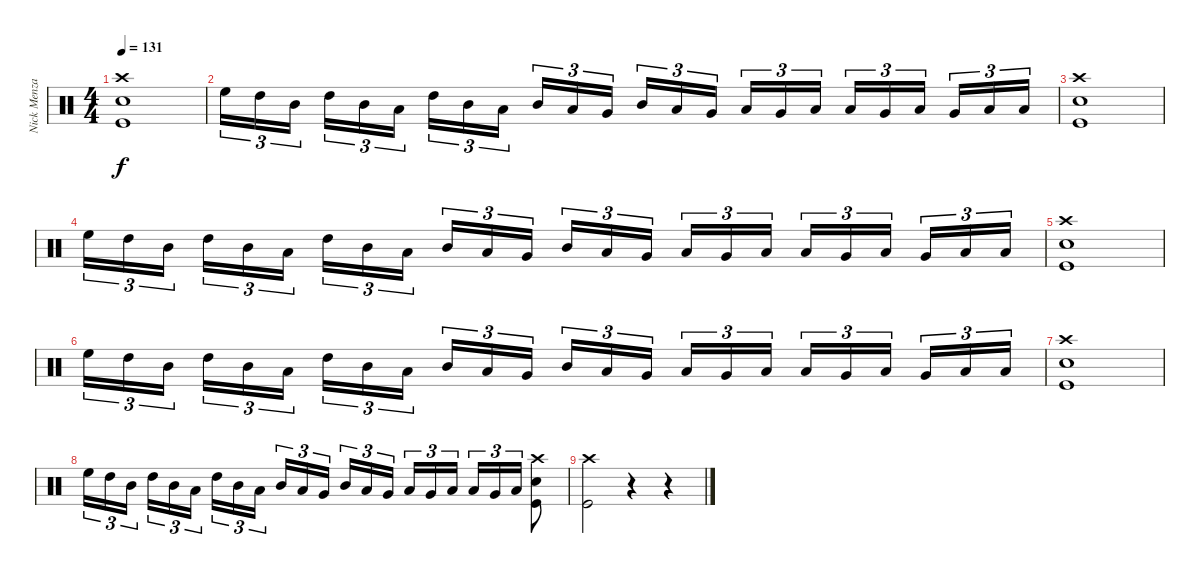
\track ("Nick Menza" "Nick Menza") {instrument percussion}
\staff {score}
\articulation defaults
\ts (4 4)
\tempo 131
\clef neutral
\ks c
("Crash high (hit)" "Snare (hit) 2" "Kick (hit)").1{dy f} |
"High Floor Tom (hit)".16{tu (3 2)} "High Tom (hit)".16{tu (3 2)} "Mid Tom (hit)".16{tu (3 2)} "High Tom (hit)".16{tu (3 2)} "Mid Tom (hit)".16{tu (3 2)} "Low Tom (hit)".16{tu (3 2)} "High Tom (hit)".16{tu (3 2)} "Mid Tom (hit)".16{tu (3 2)} "Low Tom (hit)".16{tu (3 2)} "Mid Tom (hit)".16{tu (3 2)} "Low Tom (hit)".16{tu (3 2)} "Very Low Tom (hit)".16{tu (3 2)} "Mid Tom (hit)".16{tu (3 2)} "Low Tom (hit)".16{tu (3 2)} "Very Low Tom (hit)".16{tu (3 2)} "Low Tom (hit)".16{tu (3 2)} "Very Low Tom (hit)".16{tu (3 2)} "Low Floor Tom (hit)".16{tu (3 2)} "Low Tom (hit)".16{tu (3 2)} "Very Low Tom (hit)".16{tu (3 2)} "Low Floor Tom (hit)".16{tu (3 2)} "Very Low Tom (hit)".16{tu (3 2)} "Low Floor Tom (hit)".16{tu (3 2)} "Low Floor Tom (hit)".16{tu (3 2)} |
("Crash high (hit)" "Snare (hit) 2" "Kick (hit)").1 |
"High Floor Tom (hit)".16{tu (3 2)} "High Tom (hit)".16{tu (3 2)} "Mid Tom (hit)".16{tu (3 2)} "High Tom (hit)".16{tu (3 2)} "Mid Tom (hit)".16{tu (3 2)} "Low Tom (hit)".16{tu (3 2)} "High Tom (hit)".16{tu (3 2)} "Mid Tom (hit)".16{tu (3 2)} "Low Tom (hit)".16{tu (3 2)} "Mid Tom (hit)".16{tu (3 2)} "Low Tom (hit)".16{tu (3 2)} "Very Low Tom (hit)".16{tu (3 2)} "Mid Tom (hit)".16{tu (3 2)} "Low Tom (hit)".16{tu (3 2)} "Very Low Tom (hit)".16{tu (3 2)} "Low Tom (hit)".16{tu (3 2)} "Very Low Tom (hit)".16{tu (3 2)} "Low Floor Tom (hit)".16{tu (3 2)} "Low Tom (hit)".16{tu (3 2)} "Very Low Tom (hit)".16{tu (3 2)} "Low Floor Tom (hit)".16{tu (3 2)} "Very Low Tom (hit)".16{tu (3 2)} "Low Floor Tom (hit)".16{tu (3 2)} "Low Floor Tom (hit)".16{tu (3 2)} |
("Crash high (hit)" "Snare (hit) 2" "Kick (hit)").1 |
"High Floor Tom (hit)".16{tu (3 2)} "High Tom (hit)".16{tu (3 2)} "Mid Tom (hit)".16{tu (3 2)} "High Tom (hit)".16{tu (3 2)} "Mid Tom (hit)".16{tu (3 2)} "Low Tom (hit)".16{tu (3 2)} "High Tom (hit)".16{tu (3 2)} "Mid Tom (hit)".16{tu (3 2)} "Low Tom (hit)".16{tu (3 2)} "Mid Tom (hit)".16{tu (3 2)} "Low Tom (hit)".16{tu (3 2)} "Very Low Tom (hit)".16{tu (3 2)} "Mid Tom (hit)".16{tu (3 2)} "Low Tom (hit)".16{tu (3 2)} "Very Low Tom (hit)".16{tu (3 2)} "Low Tom (hit)".16{tu (3 2)} "Very Low Tom (hit)".16{tu (3 2)} "Low Floor Tom (hit)".16{tu (3 2)} "Low Tom (hit)".16{tu (3 2)} "Very Low Tom (hit)".16{tu (3 2)} "Low Floor Tom (hit)".16{tu (3 2)} "Very Low Tom (hit)".16{tu (3 2)} "Low Floor Tom (hit)".16{tu (3 2)} "Low Floor Tom (hit)".16{tu (3 2)} |
("Crash high (hit)" "Snare (hit) 2" "Kick (hit)").1 |
"High Floor Tom (hit)".16{tu (3 2)} "High Tom (hit)".16{tu (3 2)} "Mid Tom (hit)".16{tu (3 2)} "High Tom (hit)".16{tu (3 2)} "Mid Tom (hit)".16{tu (3 2)} "Low Tom (hit)".16{tu (3 2)} "High Tom (hit)".16{tu (3 2)} "Mid Tom (hit)".16{tu (3 2)} "Low Tom (hit)".16{tu (3 2)} "Mid Tom (hit)".16{tu (3 2)} "Low Tom (hit)".16{tu (3 2)} "Very Low Tom (hit)".16{tu (3 2)} "Mid Tom (hit)".16{tu (3 2)} "Low Tom (hit)".16{tu (3 2)} "Very Low Tom (hit)".16{tu (3 2)} "Low Tom (hit)".16{tu (3 2)} "Very Low Tom (hit)".16{tu (3 2)} "Low Floor Tom (hit)".16{tu (3 2)} "Low Tom (hit)".16{tu (3 2)} "Very Low Tom (hit)".16{tu (3 2)} "Low Floor Tom (hit)".16{tu (3 2)} ("Crash high (hit)" "Snare (hit) 2" "Kick (hit)").8 |
("Crash high (hit)" "Kick (hit)").2 r.4 r.4
